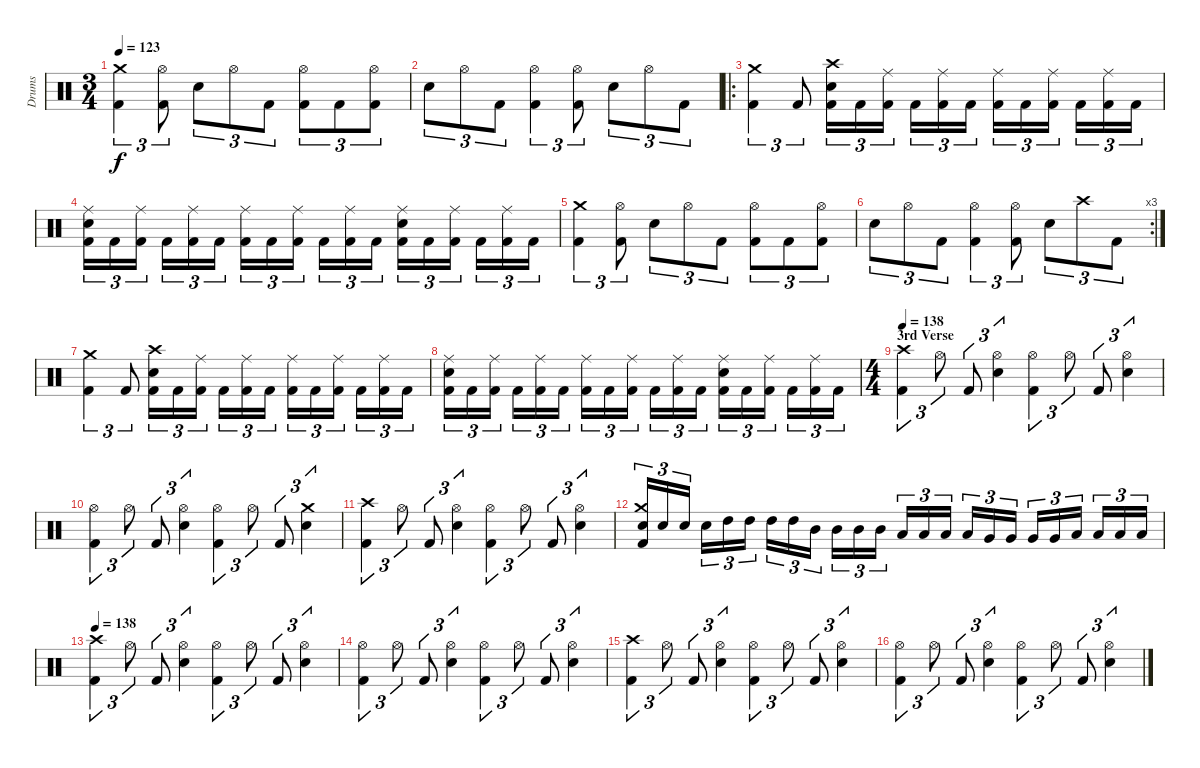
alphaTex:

\track ("Drums" "Drums") {instrument percussion}
\staff {score}
\articulation defaults
\ts (3 4)
\tempo 123
\clef neutral
\ks c
("Kick (hit) 2" "Crash medium (hit)").4{tu (3 2) dy f} ("Kick (hit) 2" "Hi-Hat (open)").8{tu (3 2)} "Electric Snare (hit)".8{tu (3 2)} "Hi-Hat (open)".8{tu (3 2)} "Kick (hit) 2".8{tu (3 2)} ("Kick (hit) 2" "Hi-Hat (open)").8{tu (3 2)} "Kick (hit) 2".8{tu (3 2)} ("Kick (hit) 2" "Hi-Hat (open)").8{tu (3 2)} |
"Electric Snare (hit)".8{tu (3 2)} "Hi-Hat (open)".8{tu (3 2)} "Kick (hit) 2".8{tu (3 2)} ("Kick (hit) 2" "Hi-Hat (open)").4{tu (3 2)} ("Kick (hit) 2" "Hi-Hat (open)").8{tu (3 2)} "Electric Snare (hit)".8{tu (3 2)} "Hi-Hat (open)".8{tu (3 2)} "Kick (hit) 2".8{tu (3 2)} |
\ro
("Kick (hit) 2" "Crash medium (hit)").4{tu (3 2)} "Kick (hit) 2".8{tu (3 2)} ("Kick (hit) 2" "Electric Snare (hit)" "Crash high (hit)").16{tu (3 2)} "Kick (hit) 2".16{tu (3 2)} ("Kick (hit) 2" "Ride (middle)").16{tu (3 2)} "Kick (hit) 2".16{tu (3 2)} ("Kick (hit) 2" "Ride (middle)").16{tu (3 2)} "Kick (hit) 2".16{tu (3 2)} ("Kick (hit) 2" "Ride (middle)").16{tu (3 2)} "Kick (hit) 2".16{tu (3 2)} ("Kick (hit) 2" "Ride (middle)").16{tu (3 2)} "Kick (hit) 2".16{tu (3 2)} ("Kick (hit) 2" "Ride (middle)").16{tu (3 2)} "Kick (hit) 2".16{tu (3 2)} |
("Kick (hit) 2" "Electric Snare (hit)" "Ride (middle)").16{tu (3 2)} "Kick (hit) 2".16{tu (3 2)} ("Kick (hit) 2" "Ride (middle)").16{tu (3 2)} "Kick (hit) 2".16{tu (3 2)} ("Kick (hit) 2" "Ride (middle)").16{tu (3 2)} "Kick (hit) 2".16{tu (3 2)} ("Kick (hit) 2" "Ride (middle)").16{tu (3 2)} "Kick (hit) 2".16{tu (3 2)} ("Kick (hit) 2" "Ride (middle)").16{tu (3 2)} "Kick (hit) 2".16{tu (3 2)} ("Kick (hit) 2" "Ride (middle)").16{tu (3 2)} "Kick (hit) 2".16{tu (3 2)} ("Kick (hit) 2" "Electric Snare (hit)" "Ride (middle)").16{tu (3 2)} "Kick (hit) 2".16{tu (3 2)} ("Kick (hit) 2" "Ride (middle)").16{tu (3 2)} "Kick (hit) 2".16{tu (3 2)} ("Kick (hit) 2" "Ride (middle)").16{tu (3 2)} "Kick (hit) 2".16{tu (3 2)} |
("Kick (hit) 2" "Crash medium (hit)").4{tu (3 2)} ("Kick (hit) 2" "Hi-Hat (open)").8{tu (3 2)} "Electric Snare (hit)".8{tu (3 2)} "Hi-Hat (open)".8{tu (3 2)} "Kick (hit) 2".8{tu (3 2)} ("Kick (hit) 2" "Hi-Hat (open)").8{tu (3 2)} "Kick (hit) 2".8{tu (3 2)} ("Kick (hit) 2" "Hi-Hat (open)").8{tu (3 2)} |
\rc 3 "Electric Snare (hit)".8{tu (3 2)} "Hi-Hat (open)".8{tu (3 2)} "Kick (hit) 2".8{tu (3 2)}
("Kick (hit) 2" "Hi-Hat (open)").4{tu (3 2)} ("Kick (hit) 2" "Hi-Hat (open)").8{tu (3 2)} "Electric Snare (hit)".8{tu (3 2)} "Crash high (hit)".8{tu (3 2)} "Kick (hit) 2".8{tu (3 2)} |
("Kick (hit) 2" "Crash medium (hit)").4{tu (3 2)} "Kick (hit) 2".8{tu (3 2)} ("Kick (hit) 2" "Electric Snare (hit)" "Crash high (hit)").16{tu (3 2)} "Kick (hit) 2".16{tu (3 2)} ("Kick (hit) 2" "Ride (middle)").16{tu (3 2)} "Kick (hit) 2".16{tu (3 2)} ("Kick (hit) 2" "Ride (middle)").16{tu (3 2)} "Kick (hit) 2".16{tu (3 2)} ("Kick (hit) 2" "Ride (middle)").16{tu (3 2)} "Kick (hit) 2".16{tu (3 2)} ("Kick (hit) 2" "Ride (middle)").16{tu (3 2)} "Kick (hit) 2".16{tu (3 2)} ("Kick (hit) 2" "Ride (middle)").16{tu (3 2)} "Kick (hit) 2".16{tu (3 2)} |
("Kick (hit) 2" "Electric Snare (hit)" "Ride (middle)").16{tu (3 2)} "Kick (hit) 2".16{tu (3 2)} ("Kick (hit) 2" "Ride (middle)").16{tu (3 2)} "Kick (hit) 2".16{tu (3 2)} ("Kick (hit) 2" "Ride (middle)").16{tu (3 2)} "Kick (hit) 2".16{tu (3 2)} ("Kick (hit) 2" "Ride (middle)").16{tu (3 2)} "Kick (hit) 2".16{tu (3 2)} ("Kick (hit) 2" "Ride (middle)").16{tu (3 2)} "Kick (hit) 2".16{tu (3 2)} ("Kick (hit) 2" "Ride (middle)").16{tu (3 2)} "Kick (hit) 2".16{tu (3 2)} ("Kick (hit) 2" "Electric Snare (hit)" "Ride (middle)").16{tu (3 2)} "Kick (hit) 2".16{tu (3 2)} ("Kick (hit) 2" "Ride (middle)").16{tu (3 2)} "Kick (hit) 2".16{tu (3 2)} ("Kick (hit) 2" "Ride (middle)").16{tu (3 2)} "Kick (hit) 2".16{tu (3 2)} |
\ts (4 4)
\section ("" "3rd Verse")
\tempo 138
("Kick (hit) 2" "Crash high (hit)").4{tu (3 2)} "Hi-Hat (open)".8{tu (3 2)} "Kick (hit) 2".8{tu (3 2)} ("Electric Snare (hit)" "Hi-Hat (open)").4{tu (3 2)} ("Kick (hit) 2" "Hi-Hat (open)").4{tu (3 2)} "Hi-Hat (open)".8{tu (3 2)} "Kick (hit) 2".8{tu (3 2)} ("Electric Snare (hit)" "Hi-Hat (open)").4{tu (3 2)} |
("Kick (hit) 2" "Hi-Hat (open)").4{tu (3 2)} "Hi-Hat (open)".8{tu (3 2)} "Kick (hit) 2".8{tu (3 2)} ("Electric Snare (hit)" "Hi-Hat (open)").4{tu (3 2)} ("Kick (hit) 2" "Hi-Hat (open)").4{tu (3 2)} "Hi-Hat (open)".8{tu (3 2)} "Kick (hit) 2".8{tu (3 2)} ("Electric Snare (hit)" "Crash medium (hit)").4{tu (3 2)} |
("Kick (hit) 2" "Crash high (hit)").4{tu (3 2)} "Hi-Hat (open)".8{tu (3 2)} "Kick (hit) 2".8{tu (3 2)} ("Electric Snare (hit)" "Hi-Hat (open)").4{tu (3 2)} ("Kick (hit) 2" "Hi-Hat (open)").4{tu (3 2)} "Hi-Hat (open)".8{tu (3 2)} "Kick (hit) 2".8{tu (3 2)} ("Electric Snare (hit)" "Hi-Hat (open)").4{tu (3 2)} |
("Kick (hit) 2" "Electric Snare (hit)" "Crash medium (hit)").16{tu (3 2)} "Electric Snare (hit)".16{tu (3 2)} "Electric Snare (hit)".16{tu (3 2)} "Electric Snare (hit)".16{tu (3 2)} "High Tom (hit)".16{tu (3 2)} "High Tom (hit)".16{tu (3 2)} "High Tom (hit)".16{tu (3 2)} "High Tom (hit)".16{tu (3 2)} "Mid Tom (hit)".16{tu (3 2)} "Mid Tom (hit)".16{tu (3 2)} "Mid Tom (hit)".16{tu (3 2)} "Mid Tom (hit)".16{tu (3 2)} "Low Tom (hit)".16{tu (3 2)} "Low Tom (hit)".16{tu (3 2)} "Low Tom (hit)".16{tu (3 2)} "Low Tom (hit)".16{tu (3 2)} "Very Low Tom (hit)".16{tu (3 2)} "Very Low Tom (hit)".16{tu (3 2)} "Very Low Tom (hit)".16{tu (3 2)} "Very Low Tom (hit)".16{tu (3 2)} "Low Floor Tom (hit)".16{tu (3 2)} "Low Floor Tom (hit)".16{tu (3 2)} "Low Floor Tom (hit)".16{tu (3 2)} "Low Floor Tom (hit)".16{tu (3 2)} |
\tempo 138
("Kick (hit) 2" "Crash high (hit)").4{tu (3 2)} "Hi-Hat (open)".8{tu (3 2)} "Kick (hit) 2".8{tu (3 2)} ("Electric Snare (hit)" "Hi-Hat (open)").4{tu (3 2)} ("Kick (hit) 2" "Hi-Hat (open)").4{tu (3 2)} "Hi-Hat (open)".8{tu (3 2)} "Kick (hit) 2".8{tu (3 2)} ("Electric Snare (hit)" "Hi-Hat (open)").4{tu (3 2)} |
("Kick (hit) 2" "Hi-Hat (open)").4{tu (3 2)} "Hi-Hat (open)".8{tu (3 2)} "Kick (hit) 2".8{tu (3 2)} ("Electric Snare (hit)" "Hi-Hat (open)").4{tu (3 2)} ("Kick (hit) 2" "Hi-Hat (open)").4{tu (3 2)} "Hi-Hat (open)".8{tu (3 2)} "Kick (hit) 2".8{tu (3 2)} ("Electric Snare (hit)" "Hi-Hat (open)").4{tu (3 2)} |
("Kick (hit) 2" "Crash high (hit)").4{tu (3 2)} "Hi-Hat (open)".8{tu (3 2)} "Kick (hit) 2".8{tu (3 2)} ("Electric Snare (hit)" "Hi-Hat (open)").4{tu (3 2)} ("Kick (hit) 2" "Hi-Hat (open)").4{tu (3 2)} "Hi-Hat (open)".8{tu (3 2)} "Kick (hit) 2".8{tu (3 2)} ("Electric Snare (hit)" "Hi-Hat (open)").4{tu (3 2)} |
("Kick (hit) 2" "Hi-Hat (open)").4{tu (3 2)} "Hi-Hat (open)".8{tu (3 2)} "Kick (hit) 2".8{tu (3 2)} ("Electric Snare (hit)" "Hi-Hat (open)").4{tu (3 2)} ("Kick (hit) 2" "Hi-Hat (open)").4{tu (3 2)} "Hi-Hat (open)".8{tu (3 2)} "Kick (hit) 2".8{tu (3 2)} ("Electric Snare (hit)" "Hi-Hat (open)").4{tu (3 2)}
